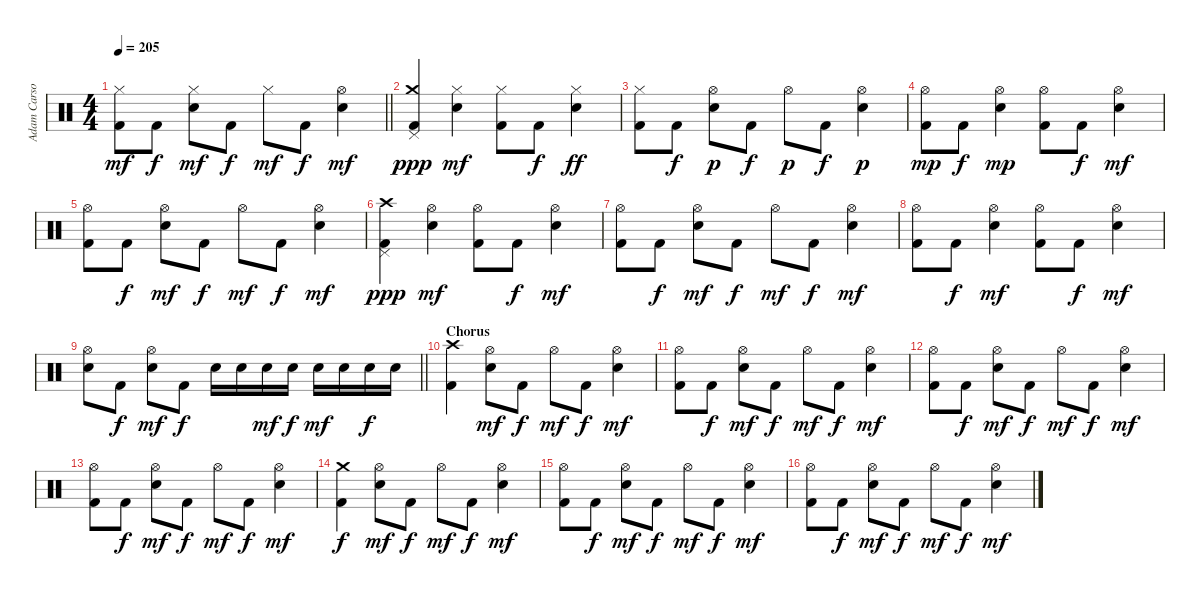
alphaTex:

\track ("Adam Carson" "Adam Carso") {instrument percussion}
\staff {score}
\articulation defaults
\ts (4 4)
\tempo 205
\clef neutral
\barLineRight lightlight
\ks aminor
("Hi-Hat (closed)" "Kick (hit) 2").8{dy mf} "Kick (hit) 2".8{dy f} ("Hi-Hat (closed)" "Snare (hit) 2").8{dy mf} "Kick (hit) 2".8{dy f} "Hi-Hat (closed)".8{dy mf} "Kick (hit) 2".8{dy f} ("Hi-Hat (open)" "Snare (hit) 2").4{dy mf} |
("Crash medium (hit)" "Pedal Hi-Hat (hit)" "Kick (hit) 2").4{dy ppp} ("Hi-Hat (closed)" "Snare (hit) 2").4{dy mf} ("Hi-Hat (closed)" "Kick (hit) 2").8 "Kick (hit) 2".8{dy f} ("Hi-Hat (closed)" "Snare (hit) 2").4{dy ff} |
("Hi-Hat (closed)" "Kick (hit) 2").8 "Kick (hit) 2".8{dy f} ("Hi-Hat (open)" "Snare (hit) 2").8{dy p} "Kick (hit) 2".8{dy f} "Hi-Hat (open)".8{dy p} "Kick (hit) 2".8{dy f} ("Hi-Hat (open)" "Snare (hit) 2").4{dy p} |
("Hi-Hat (open)" "Kick (hit) 2").8{dy mp} "Kick (hit) 2".8{dy f} ("Hi-Hat (open)" "Snare (hit) 2").4{dy mp} ("Hi-Hat (open)" "Kick (hit) 2").8 "Kick (hit) 2".8{dy f} ("Hi-Hat (open)" "Snare (hit) 2").4{dy mf} |
("Hi-Hat (open)" "Kick (hit) 2").8 "Kick (hit) 2".8{dy f} ("Hi-Hat (open)" "Snare (hit) 2").8{dy mf} "Kick (hit) 2".8{dy f} "Hi-Hat (open)".8{dy mf} "Kick (hit) 2".8{dy f} ("Hi-Hat (open)" "Snare (hit) 2").4{dy mf} |
("Crash high (hit)" "Pedal Hi-Hat (hit)" "Kick (hit) 2").4{dy ppp} ("Hi-Hat (open)" "Snare (hit) 2").4{dy mf} ("Hi-Hat (open)" "Kick (hit) 2").8 "Kick (hit) 2".8{dy f} ("Hi-Hat (open)" "Snare (hit) 2").4{dy mf} |
("Hi-Hat (open)" "Kick (hit) 2").8 "Kick (hit) 2".8{dy f} ("Hi-Hat (open)" "Snare (hit) 2").8{dy mf} "Kick (hit) 2".8{dy f} "Hi-Hat (open)".8{dy mf} "Kick (hit) 2".8{dy f} ("Hi-Hat (open)" "Snare (hit) 2").4{dy mf} |
("Hi-Hat (open)" "Kick (hit) 2").8 "Kick (hit) 2".8{dy f} ("Hi-Hat (open)" "Snare (hit) 2").4{dy mf} ("Hi-Hat (open)" "Kick (hit) 2").8 "Kick (hit) 2".8{dy f} ("Hi-Hat (open)" "Snare (hit) 2").4{dy mf} |
\barLineRight lightlight
("Hi-Hat (open)" "Snare (hit) 2").8 "Kick (hit) 2".8{dy f} ("Hi-Hat (open)" "Snare (hit) 2").8{dy mf} "Kick (hit) 2".8{dy f} "Snare (hit) 2".16 "Snare (hit) 2".16 "Snare (hit) 2".16{dy mf} "Snare (hit) 2".16{dy f} "Snare (hit) 2".16{dy mf} "Snare (hit) 2".16 "Snare (hit) 2".16{dy f} "Snare (hit) 2".16 |
\section ("" "Chorus")
("Crash high (hit)" "Kick (hit) 2").4 ("Hi-Hat (open)" "Snare (hit) 2").8{dy mf} "Kick (hit) 2".8{dy f} "Hi-Hat (open)".8{dy mf} "Kick (hit) 2".8{dy f} ("Hi-Hat (open)" "Snare (hit) 2").4{dy mf} |
("Hi-Hat (open)" "Kick (hit) 2").8 "Kick (hit) 2".8{dy f} ("Hi-Hat (open)" "Snare (hit) 2").8{dy mf} "Kick (hit) 2".8{dy f} "Hi-Hat (open)".8{dy mf} "Kick (hit) 2".8{dy f} ("Hi-Hat (open)" "Snare (hit) 2").4{dy mf} |
("Hi-Hat (open)" "Kick (hit) 2").8 "Kick (hit) 2".8{dy f} ("Hi-Hat (open)" "Snare (hit) 2").8{dy mf} "Kick (hit) 2".8{dy f} "Hi-Hat (open)".8{dy mf} "Kick (hit) 2".8{dy f} ("Hi-Hat (open)" "Snare (hit) 2").4{dy mf} |
("Hi-Hat (open)" "Kick (hit) 2").8 "Kick (hit) 2".8{dy f} ("Hi-Hat (open)" "Snare (hit) 2").8{dy mf} "Kick (hit) 2".8{dy f} "Hi-Hat (open)".8{dy mf} "Kick (hit) 2".8{dy f} ("Hi-Hat (open)" "Snare (hit) 2").4{dy mf} |
("Crash medium (hit)" "Kick (hit) 2").4{dy f} ("Hi-Hat (open)" "Snare (hit) 2").8{dy mf} "Kick (hit) 2".8{dy f} "Hi-Hat (open)".8{dy mf} "Kick (hit) 2".8{dy f} ("Hi-Hat (open)" "Snare (hit) 2").4{dy mf} |
("Hi-Hat (open)" "Kick (hit) 2").8 "Kick (hit) 2".8{dy f} ("Hi-Hat (open)" "Snare (hit) 2").8{dy mf} "Kick (hit) 2".8{dy f} "Hi-Hat (open)".8{dy mf} "Kick (hit) 2".8{dy f} ("Hi-Hat (open)" "Snare (hit) 2").4{dy mf} |
("Hi-Hat (open)" "Kick (hit) 2").8 "Kick (hit) 2".8{dy f} ("Hi-Hat (open)" "Snare (hit) 2").8{dy mf} "Kick (hit) 2".8{dy f} "Hi-Hat (open)".8{dy mf} "Kick (hit) 2".8{dy f} ("Hi-Hat (open)" "Snare (hit) 2").4{dy mf}
